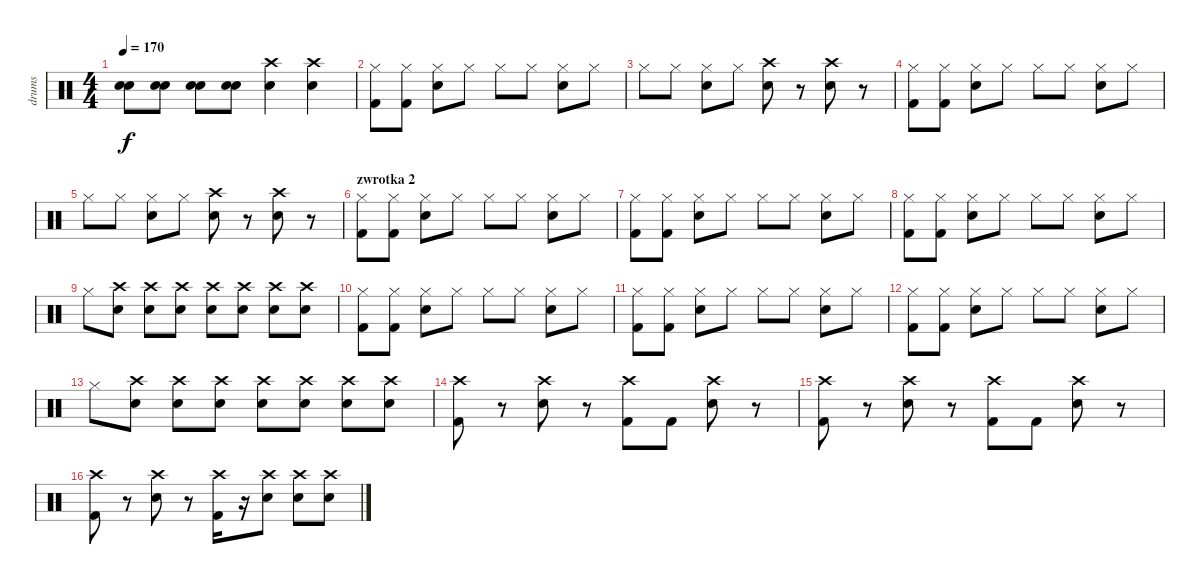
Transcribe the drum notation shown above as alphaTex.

\track ("drums" "drums") {instrument percussion}
\staff {score}
\articulation defaults
\ts (4 4)
\tempo 170
\clef neutral
\ks c
("Snare (hit) 2" "Snare (hit) 2").8{dy f} ("Snare (hit) 2" "Snare (hit) 2").8 ("Snare (hit) 2" "Snare (hit) 2").8 ("Snare (hit) 2" "Snare (hit) 2").8 ("Crash high (hit)" "Snare (hit) 2").4{volume 13} ("Crash high (hit)" "Snare (hit) 2").4 |
("Hi-Hat (closed)" "Kick (hit) 2").8 ("Hi-Hat (closed)" "Kick (hit) 2").8 ("Hi-Hat (closed)" "Snare (hit) 2").8 "Hi-Hat (closed)".8 "Hi-Hat (closed)".8 "Hi-Hat (closed)".8 ("Hi-Hat (closed)" "Snare (hit) 2").8 "Hi-Hat (closed)".8 |
"Hi-Hat (closed)".8 "Hi-Hat (closed)".8 ("Hi-Hat (closed)" "Snare (hit) 2").8 "Hi-Hat (closed)".8 ("Crash high (hit)" "Snare (hit) 2").8 r.8 ("Crash high (hit)" "Snare (hit) 2").8 r.8 |
("Hi-Hat (closed)" "Kick (hit) 2").8 ("Hi-Hat (closed)" "Kick (hit) 2").8 ("Hi-Hat (closed)" "Snare (hit) 2").8 "Hi-Hat (closed)".8 "Hi-Hat (closed)".8 "Hi-Hat (closed)".8 ("Hi-Hat (closed)" "Snare (hit) 2").8 "Hi-Hat (closed)".8 |
"Hi-Hat (closed)".8 "Hi-Hat (closed)".8 ("Hi-Hat (closed)" "Snare (hit) 2").8 "Hi-Hat (closed)".8 ("Crash high (hit)" "Snare (hit) 2").8 r.8 ("Crash high (hit)" "Snare (hit) 2").8 r.8 |
\section ("" "zwrotka 2")
("Hi-Hat (closed)" "Kick (hit) 2").8 ("Hi-Hat (closed)" "Kick (hit) 2").8 ("Hi-Hat (closed)" "Snare (hit) 2").8 "Hi-Hat (closed)".8 "Hi-Hat (closed)".8 "Hi-Hat (closed)".8 ("Hi-Hat (closed)" "Snare (hit) 2").8 "Hi-Hat (closed)".8 |
("Hi-Hat (closed)" "Kick (hit) 2").8 ("Hi-Hat (closed)" "Kick (hit) 2").8 ("Hi-Hat (closed)" "Snare (hit) 2").8 "Hi-Hat (closed)".8 "Hi-Hat (closed)".8 "Hi-Hat (closed)".8 ("Hi-Hat (closed)" "Snare (hit) 2").8 "Hi-Hat (closed)".8 |
("Hi-Hat (closed)" "Kick (hit) 2").8 ("Hi-Hat (closed)" "Kick (hit) 2").8 ("Hi-Hat (closed)" "Snare (hit) 2").8 "Hi-Hat (closed)".8 "Hi-Hat (closed)".8 "Hi-Hat (closed)".8 ("Hi-Hat (closed)" "Snare (hit) 2").8 "Hi-Hat (closed)".8 |
"Hi-Hat (closed)".8 ("Crash high (hit)" "Snare (hit) 2").8 ("Crash high (hit)" "Snare (hit) 2").8 ("Crash high (hit)" "Snare (hit) 2").8 ("Crash high (hit)" "Snare (hit) 2").8 ("Crash high (hit)" "Snare (hit) 2").8 ("Crash high (hit)" "Snare (hit) 2").8 ("Crash high (hit)" "Snare (hit) 2").8 |
("Hi-Hat (closed)" "Kick (hit) 2").8 ("Hi-Hat (closed)" "Kick (hit) 2").8 ("Hi-Hat (closed)" "Snare (hit) 2").8 "Hi-Hat (closed)".8 "Hi-Hat (closed)".8 "Hi-Hat (closed)".8 ("Hi-Hat (closed)" "Snare (hit) 2").8 "Hi-Hat (closed)".8 |
("Hi-Hat (closed)" "Kick (hit) 2").8 ("Hi-Hat (closed)" "Kick (hit) 2").8 ("Hi-Hat (closed)" "Snare (hit) 2").8 "Hi-Hat (closed)".8 "Hi-Hat (closed)".8 "Hi-Hat (closed)".8 ("Hi-Hat (closed)" "Snare (hit) 2").8 "Hi-Hat (closed)".8 |
("Hi-Hat (closed)" "Kick (hit) 2").8 ("Hi-Hat (closed)" "Kick (hit) 2").8 ("Hi-Hat (closed)" "Snare (hit) 2").8 "Hi-Hat (closed)".8 "Hi-Hat (closed)".8 "Hi-Hat (closed)".8 ("Hi-Hat (closed)" "Snare (hit) 2").8 "Hi-Hat (closed)".8 |
"Hi-Hat (closed)".8 ("Crash high (hit)" "Snare (hit) 2").8 ("Crash high (hit)" "Snare (hit) 2").8 ("Crash high (hit)" "Snare (hit) 2").8 ("Crash high (hit)" "Snare (hit) 2").8 ("Crash high (hit)" "Snare (hit) 2").8 ("Crash high (hit)" "Snare (hit) 2").8 ("Crash high (hit)" "Snare (hit) 2").8 |
("Crash high (hit)" "Kick (hit) 2").8 r.8 ("Crash high (hit)" "Snare (hit) 2").8 r.8 ("Crash high (hit)" "Kick (hit) 2").8 "Kick (hit) 2".8 ("Crash high (hit)" "Snare (hit) 2").8 r.8 |
("Crash high (hit)" "Kick (hit) 2").8 r.8 ("Crash high (hit)" "Snare (hit) 2").8 r.8 ("Crash high (hit)" "Kick (hit) 2").8 "Kick (hit) 2".8 ("Crash high (hit)" "Snare (hit) 2").8 r.8 |
("Crash high (hit)" "Kick (hit) 2").8 r.8 ("Crash high (hit)" "Snare (hit) 2").8 r.8 ("Crash high (hit)" "Kick (hit) 2").16 r.16 ("Crash high (hit)" "Snare (hit) 2").8 ("Crash high (hit)" "Snare (hit) 2").8 ("Crash high (hit)" "Snare (hit) 2").8
